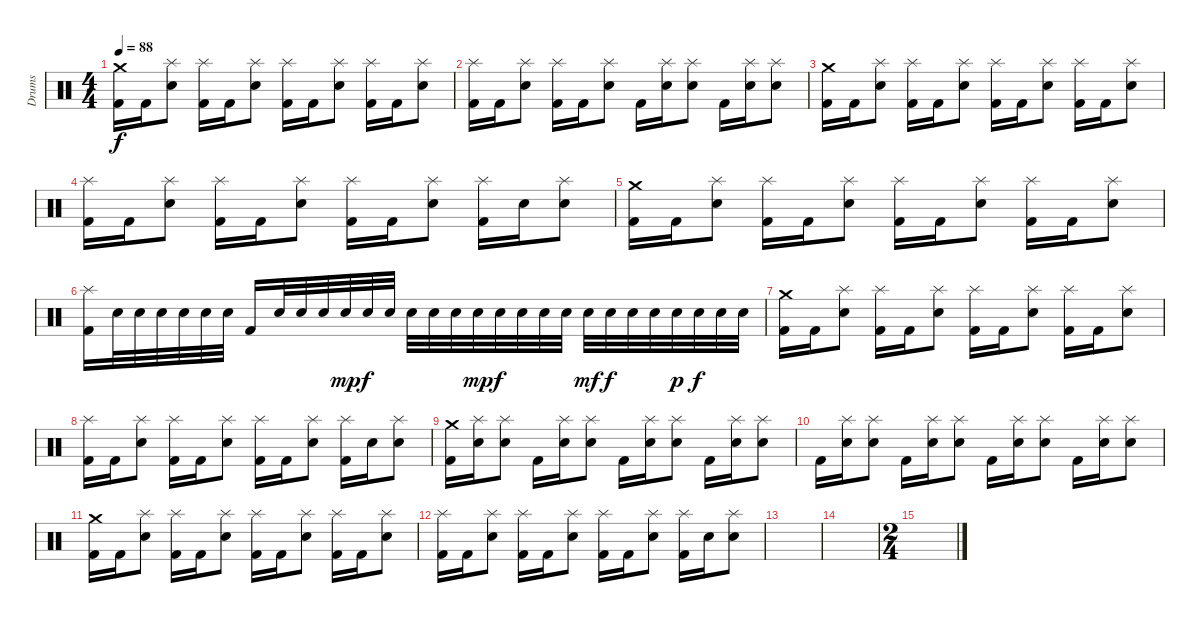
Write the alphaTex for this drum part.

\track ("Drums" "Drums") {instrument percussion}
\staff {score}
\articulation defaults
\ts (4 4)
\tempo 88
\clef neutral
\ks c
("Crash medium (hit)" "Kick (hit) 2").16{dy f} "Kick (hit) 2".16 ("Splash (hit)" "Electric Snare (hit)").8 ("Splash (hit)" "Kick (hit) 2").16 "Kick (hit) 2".16 ("Splash (hit)" "Electric Snare (hit)").8 ("Splash (hit)" "Kick (hit) 2").16 "Kick (hit) 2".16 ("Splash (hit)" "Electric Snare (hit)").8 ("Splash (hit)" "Kick (hit) 2").16 "Kick (hit) 2".16 ("Splash (hit)" "Electric Snare (hit)").8 |
("Splash (hit)" "Kick (hit) 2").16 "Kick (hit) 2".16 ("Splash (hit)" "Electric Snare (hit)").8 ("Splash (hit)" "Kick (hit) 2").16 "Kick (hit) 2".16 ("Splash (hit)" "Electric Snare (hit)").8 "Kick (hit) 2".16 ("Splash (hit)" "Electric Snare (hit)").16 ("Splash (hit)" "Electric Snare (hit)").8 "Kick (hit) 2".16 ("Splash (hit)" "Electric Snare (hit)").16 ("Splash (hit)" "Electric Snare (hit)").8 |
("Crash medium (hit)" "Kick (hit) 2").16 "Kick (hit) 2".16 ("Splash (hit)" "Electric Snare (hit)").8 ("Splash (hit)" "Kick (hit) 2").16 "Kick (hit) 2".16 ("Splash (hit)" "Electric Snare (hit)").8 ("Splash (hit)" "Kick (hit) 2").16 "Kick (hit) 2".16 ("Splash (hit)" "Electric Snare (hit)").8 ("Splash (hit)" "Kick (hit) 2").16 "Kick (hit) 2".16 ("Splash (hit)" "Electric Snare (hit)").8 |
("Splash (hit)" "Kick (hit) 2").16 "Kick (hit) 2".16 ("Splash (hit)" "Electric Snare (hit)").8 ("Splash (hit)" "Kick (hit) 2").16 "Kick (hit) 2".16 ("Splash (hit)" "Electric Snare (hit)").8 ("Splash (hit)" "Kick (hit) 2").16 "Kick (hit) 2".16 ("Splash (hit)" "Electric Snare (hit)").8 ("Splash (hit)" "Kick (hit) 2").16 "Electric Snare (hit)".16 ("Splash (hit)" "Electric Snare (hit)").8 |
("Crash medium (hit)" "Kick (hit) 2").16 "Kick (hit) 2".16 ("Splash (hit)" "Electric Snare (hit)").8 ("Splash (hit)" "Kick (hit) 2").16 "Kick (hit) 2".16 ("Splash (hit)" "Electric Snare (hit)").8 ("Splash (hit)" "Kick (hit) 2").16 "Kick (hit) 2".16 ("Splash (hit)" "Electric Snare (hit)").8 ("Splash (hit)" "Kick (hit) 2").16 "Kick (hit) 2".16 ("Splash (hit)" "Electric Snare (hit)").8 |
("Splash (hit)" "Kick (hit) 2").16 "Electric Snare (hit)".32 "Electric Snare (hit)".32 "Electric Snare (hit)".32 "Electric Snare (hit)".32 "Electric Snare (hit)".32 "Electric Snare (hit)".32 "Kick (hit) 2".16 "Electric Snare (hit)".32 "Electric Snare (hit)".32 "Electric Snare (hit)".32 "Electric Snare (hit)".32{dy mp} "Electric Snare (hit)".32{dy f} "Electric Snare (hit)".32 "Electric Snare (hit)".32 "Electric Snare (hit)".32 "Electric Snare (hit)".32 "Electric Snare (hit)".32{dy mp} "Electric Snare (hit)".32{dy f} "Electric Snare (hit)".32 "Electric Snare (hit)".32 "Electric Snare (hit)".32 "Electric Snare (hit)".32{dy mf} "Electric Snare (hit)".32{dy f} "Electric Snare (hit)".32 "Electric Snare (hit)".32 "Electric Snare (hit)".32{dy p} "Electric Snare (hit)".32{dy f} "Electric Snare (hit)".32 "Electric Snare (hit)".32 |
("Crash medium (hit)" "Kick (hit) 2").16 "Kick (hit) 2".16 ("Splash (hit)" "Electric Snare (hit)").8 ("Splash (hit)" "Kick (hit) 2").16 "Kick (hit) 2".16 ("Splash (hit)" "Electric Snare (hit)").8 ("Splash (hit)" "Kick (hit) 2").16 "Kick (hit) 2".16 ("Splash (hit)" "Electric Snare (hit)").8 ("Splash (hit)" "Kick (hit) 2").16 "Kick (hit) 2".16 ("Splash (hit)" "Electric Snare (hit)").8 |
("Splash (hit)" "Kick (hit) 2").16 "Kick (hit) 2".16 ("Splash (hit)" "Electric Snare (hit)").8 ("Splash (hit)" "Kick (hit) 2").16 "Kick (hit) 2".16 ("Splash (hit)" "Electric Snare (hit)").8 ("Splash (hit)" "Kick (hit) 2").16 "Kick (hit) 2".16 ("Splash (hit)" "Electric Snare (hit)").8 ("Splash (hit)" "Kick (hit) 2").16 "Electric Snare (hit)".16 ("Splash (hit)" "Electric Snare (hit)").8 |
("Crash medium (hit)" "Kick (hit) 2").16 ("Splash (hit)" "Electric Snare (hit)").16 ("Splash (hit)" "Electric Snare (hit)").8 "Kick (hit) 2".16 ("Splash (hit)" "Electric Snare (hit)").16 ("Splash (hit)" "Electric Snare (hit)").8 "Kick (hit) 2".16 ("Splash (hit)" "Electric Snare (hit)").16 ("Splash (hit)" "Electric Snare (hit)").8 "Kick (hit) 2".16 ("Splash (hit)" "Electric Snare (hit)").16 ("Splash (hit)" "Electric Snare (hit)").8 |
"Kick (hit) 2".16 ("Splash (hit)" "Electric Snare (hit)").16 ("Splash (hit)" "Electric Snare (hit)").8 "Kick (hit) 2".16 ("Splash (hit)" "Electric Snare (hit)").16 ("Splash (hit)" "Electric Snare (hit)").8 "Kick (hit) 2".16 ("Splash (hit)" "Electric Snare (hit)").16 ("Splash (hit)" "Electric Snare (hit)").8 "Kick (hit) 2".16 ("Splash (hit)" "Electric Snare (hit)").16 ("Splash (hit)" "Electric Snare (hit)").8 |
("Crash medium (hit)" "Kick (hit) 2").16{volume 0} "Kick (hit) 2".16 ("Splash (hit)" "Electric Snare (hit)").8 ("Splash (hit)" "Kick (hit) 2").16 "Kick (hit) 2".16 ("Splash (hit)" "Electric Snare (hit)").8 ("Splash (hit)" "Kick (hit) 2").16 "Kick (hit) 2".16 ("Splash (hit)" "Electric Snare (hit)").8 ("Splash (hit)" "Kick (hit) 2").16 "Kick (hit) 2".16 ("Splash (hit)" "Electric Snare (hit)").8 |
("Splash (hit)" "Kick (hit) 2").16 "Kick (hit) 2".16 ("Splash (hit)" "Electric Snare (hit)").8 ("Splash (hit)" "Kick (hit) 2").16 "Kick (hit) 2".16 ("Splash (hit)" "Electric Snare (hit)").8 ("Splash (hit)" "Kick (hit) 2").16 "Kick (hit) 2".16 ("Splash (hit)" "Electric Snare (hit)").8 ("Splash (hit)" "Kick (hit) 2").16 "Electric Snare (hit)".16 ("Splash (hit)" "Electric Snare (hit)").8 |
|
|
\ts (2 4)
